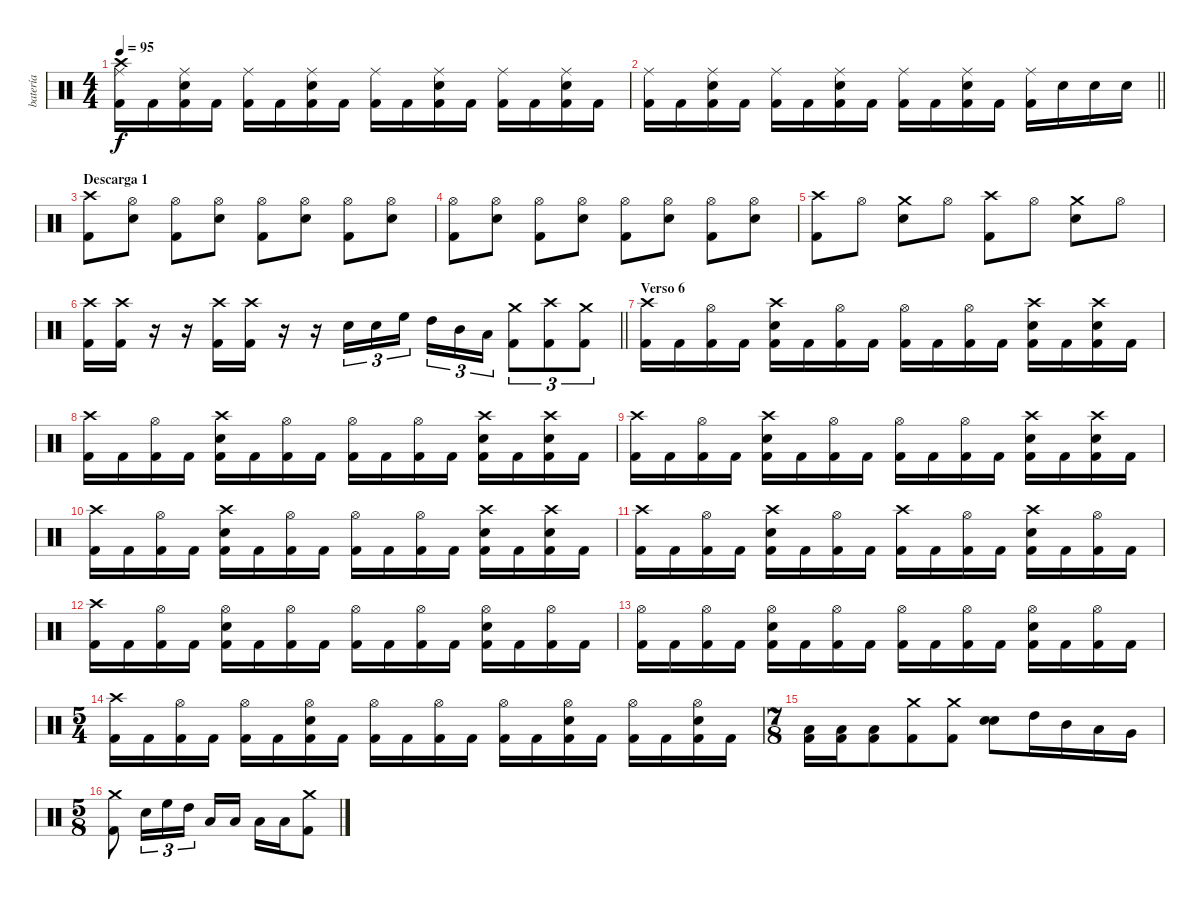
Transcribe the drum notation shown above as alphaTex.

\track ("batería" "batería") {instrument percussion}
\staff {score}
\articulation defaults
\ts (4 4)
\tempo 95
\clef neutral
\ks c
("Crash high (hit)" "Ride (middle)" "Kick (hit) 2").16{dy f} "Kick (hit) 2".16 ("Ride (middle)" "Electric Snare (hit)" "Kick (hit) 2").16 "Kick (hit) 2".16 ("Ride (middle)" "Kick (hit) 2").16 "Kick (hit) 2".16 ("Ride (middle)" "Electric Snare (hit)" "Kick (hit) 2").16 "Kick (hit) 2".16 ("Ride (middle)" "Kick (hit) 2").16 "Kick (hit) 2".16 ("Ride (middle)" "Electric Snare (hit)" "Kick (hit) 2").16 "Kick (hit) 2".16 ("Ride (middle)" "Kick (hit) 2").16 "Kick (hit) 2".16 ("Ride (middle)" "Electric Snare (hit)" "Kick (hit) 2").16 "Kick (hit) 2".16 |
\barLineRight lightlight
("Ride (middle)" "Kick (hit) 2").16 "Kick (hit) 2".16 ("Ride (middle)" "Electric Snare (hit)" "Kick (hit) 2").16 "Kick (hit) 2".16 ("Ride (middle)" "Kick (hit) 2").16 "Kick (hit) 2".16 ("Ride (middle)" "Electric Snare (hit)" "Kick (hit) 2").16 "Kick (hit) 2".16 ("Ride (middle)" "Kick (hit) 2").16 "Kick (hit) 2".16 ("Ride (middle)" "Electric Snare (hit)" "Kick (hit) 2").16 "Kick (hit) 2".16 ("Ride (middle)" "Kick (hit) 2").16 "Electric Snare (hit)".16 "Electric Snare (hit)".16 "Electric Snare (hit)".16 |
\section ("" "Descarga 1")
("Crash high (hit)" "Kick (hit) 2").8 ("Hi-Hat (open)" "Electric Snare (hit)").8 ("Hi-Hat (open)" "Kick (hit) 2").8 ("Hi-Hat (open)" "Electric Snare (hit)").8 ("Hi-Hat (open)" "Kick (hit) 2").8 ("Hi-Hat (open)" "Electric Snare (hit)").8 ("Hi-Hat (open)" "Kick (hit) 2").8 ("Hi-Hat (open)" "Electric Snare (hit)").8 |
("Hi-Hat (open)" "Kick (hit) 2").8 ("Hi-Hat (open)" "Electric Snare (hit)").8 ("Hi-Hat (open)" "Kick (hit) 2").8 ("Hi-Hat (open)" "Electric Snare (hit)").8 ("Hi-Hat (open)" "Kick (hit) 2").8 ("Hi-Hat (open)" "Electric Snare (hit)").8 ("Hi-Hat (open)" "Kick (hit) 2").8 ("Hi-Hat (open)" "Electric Snare (hit)").8 |
("Crash high (hit)" "Kick (hit) 2").8 "Hi-Hat (open)".8 ("Crash medium (hit)" "Electric Snare (hit)").8 "Hi-Hat (open)".8 ("Crash high (hit)" "Kick (hit) 2").8 "Hi-Hat (open)".8 ("Crash medium (hit)" "Electric Snare (hit)").8 "Hi-Hat (open)".8 |
\barLineRight lightlight
("Crash high (hit)" "Kick (hit) 2").16 ("Crash high (hit)" "Kick (hit) 2").16 r.16 r.16 ("Crash high (hit)" "Kick (hit) 2").16 ("Crash high (hit)" "Kick (hit) 2").16 r.16 r.16 "Electric Snare (hit)".16{tu (3 2)} "Electric Snare (hit)".16{tu (3 2)} "High Floor Tom (hit)".16{tu (3 2) beam splitsecondary} "High Tom (hit)".16{tu (3 2)} "Mid Tom (hit)".16{tu (3 2)} "Low Tom (hit)".16{tu (3 2)} ("Crash medium (hit)" "Kick (hit) 2").8{tu (3 2)} ("Crash high (hit)" "Kick (hit) 2").8{tu (3 2)} ("Crash medium (hit)" "Kick (hit) 2").8{tu (3 2)} |
\section ("" "Verso 6")
("Crash high (hit)" "Kick (hit) 2").16 "Kick (hit) 2".16 ("Hi-Hat (open)" "Kick (hit) 2").16 "Kick (hit) 2".16 ("Electric Snare (hit)" "Crash high (hit)" "Kick (hit) 2").16 "Kick (hit) 2".16 ("Hi-Hat (open)" "Kick (hit) 2").16 "Kick (hit) 2".16 ("Hi-Hat (open)" "Kick (hit) 2").16 "Kick (hit) 2".16 ("Hi-Hat (open)" "Kick (hit) 2").16 "Kick (hit) 2".16 ("Electric Snare (hit)" "Crash high (hit)" "Kick (hit) 2").16 "Kick (hit) 2".16 ("Electric Snare (hit)" "Crash high (hit)" "Kick (hit) 2").16 "Kick (hit) 2".16 |
("Crash high (hit)" "Kick (hit) 2").16 "Kick (hit) 2".16 ("Hi-Hat (open)" "Kick (hit) 2").16 "Kick (hit) 2".16 ("Electric Snare (hit)" "Crash high (hit)" "Kick (hit) 2").16 "Kick (hit) 2".16 ("Hi-Hat (open)" "Kick (hit) 2").16 "Kick (hit) 2".16 ("Hi-Hat (open)" "Kick (hit) 2").16 "Kick (hit) 2".16 ("Hi-Hat (open)" "Kick (hit) 2").16 "Kick (hit) 2".16 ("Electric Snare (hit)" "Crash high (hit)" "Kick (hit) 2").16 "Kick (hit) 2".16 ("Electric Snare (hit)" "Crash high (hit)" "Kick (hit) 2").16 "Kick (hit) 2".16 |
("Crash high (hit)" "Kick (hit) 2").16 "Kick (hit) 2".16 ("Hi-Hat (open)" "Kick (hit) 2").16 "Kick (hit) 2".16 ("Electric Snare (hit)" "Crash high (hit)" "Kick (hit) 2").16 "Kick (hit) 2".16 ("Hi-Hat (open)" "Kick (hit) 2").16 "Kick (hit) 2".16 ("Hi-Hat (open)" "Kick (hit) 2").16 "Kick (hit) 2".16 ("Hi-Hat (open)" "Kick (hit) 2").16 "Kick (hit) 2".16 ("Electric Snare (hit)" "Crash high (hit)" "Kick (hit) 2").16 "Kick (hit) 2".16 ("Electric Snare (hit)" "Crash high (hit)" "Kick (hit) 2").16 "Kick (hit) 2".16 |
("Crash high (hit)" "Kick (hit) 2").16 "Kick (hit) 2".16 ("Hi-Hat (open)" "Kick (hit) 2").16 "Kick (hit) 2".16 ("Electric Snare (hit)" "Crash high (hit)" "Kick (hit) 2").16 "Kick (hit) 2".16 ("Hi-Hat (open)" "Kick (hit) 2").16 "Kick (hit) 2".16 ("Hi-Hat (open)" "Kick (hit) 2").16 "Kick (hit) 2".16 ("Hi-Hat (open)" "Kick (hit) 2").16 "Kick (hit) 2".16 ("Electric Snare (hit)" "Crash high (hit)" "Kick (hit) 2").16 "Kick (hit) 2".16 ("Electric Snare (hit)" "Crash high (hit)" "Kick (hit) 2").16 "Kick (hit) 2".16 |
("Crash high (hit)" "Kick (hit) 2").16 "Kick (hit) 2".16 ("Hi-Hat (open)" "Kick (hit) 2").16 "Kick (hit) 2".16 ("Electric Snare (hit)" "Crash high (hit)" "Kick (hit) 2").16 "Kick (hit) 2".16 ("Hi-Hat (open)" "Kick (hit) 2").16 "Kick (hit) 2".16 ("Crash high (hit)" "Kick (hit) 2").16 "Kick (hit) 2".16 ("Hi-Hat (open)" "Kick (hit) 2").16 "Kick (hit) 2".16 ("Electric Snare (hit)" "Crash high (hit)" "Kick (hit) 2").16 "Kick (hit) 2".16 ("Hi-Hat (open)" "Kick (hit) 2").16 "Kick (hit) 2".16 |
("Crash high (hit)" "Kick (hit) 2").16 "Kick (hit) 2".16 ("Hi-Hat (open)" "Kick (hit) 2").16 "Kick (hit) 2".16 ("Electric Snare (hit)" "Hi-Hat (open)" "Kick (hit) 2").16 "Kick (hit) 2".16 ("Hi-Hat (open)" "Kick (hit) 2").16 "Kick (hit) 2".16 ("Hi-Hat (open)" "Kick (hit) 2").16 "Kick (hit) 2".16 ("Hi-Hat (open)" "Kick (hit) 2").16 "Kick (hit) 2".16 ("Electric Snare (hit)" "Hi-Hat (open)" "Kick (hit) 2").16 "Kick (hit) 2".16 ("Hi-Hat (open)" "Kick (hit) 2").16 "Kick (hit) 2".16 |
("Hi-Hat (open)" "Kick (hit) 2").16 "Kick (hit) 2".16 ("Hi-Hat (open)" "Kick (hit) 2").16 "Kick (hit) 2".16 ("Electric Snare (hit)" "Hi-Hat (open)" "Kick (hit) 2").16 "Kick (hit) 2".16 ("Hi-Hat (open)" "Kick (hit) 2").16 "Kick (hit) 2".16 ("Hi-Hat (open)" "Kick (hit) 2").16 "Kick (hit) 2".16 ("Hi-Hat (open)" "Kick (hit) 2").16 "Kick (hit) 2".16 ("Electric Snare (hit)" "Hi-Hat (open)" "Kick (hit) 2").16 "Kick (hit) 2".16 ("Hi-Hat (open)" "Kick (hit) 2").16 "Kick (hit) 2".16 |
\ts (5 4)
("Crash high (hit)" "Kick (hit) 2").16 "Kick (hit) 2".16 ("Hi-Hat (open)" "Kick (hit) 2").16 "Kick (hit) 2".16 ("Hi-Hat (open)" "Kick (hit) 2").16 "Kick (hit) 2".16 ("Electric Snare (hit)" "Hi-Hat (open)" "Kick (hit) 2").16 "Kick (hit) 2".16 ("Hi-Hat (open)" "Kick (hit) 2").16 "Kick (hit) 2".16 ("Hi-Hat (open)" "Kick (hit) 2").16 "Kick (hit) 2".16 ("Hi-Hat (open)" "Kick (hit) 2").16 "Kick (hit) 2".16 ("Electric Snare (hit)" "Hi-Hat (open)" "Kick (hit) 2").16 "Kick (hit) 2".16 ("Hi-Hat (open)" "Kick (hit) 2").16 "Kick (hit) 2".16 ("Electric Snare (hit)" "Hi-Hat (open)" "Kick (hit) 2").16 "Kick (hit) 2".16 |
\ts (7 8)
("Low Tom (hit)" "Kick (hit) 2").16 ("Low Tom (hit)" "Kick (hit) 2").16 ("Low Tom (hit)" "Kick (hit) 2").8 ("Crash medium (hit)" "Kick (hit) 2").8 ("Crash medium (hit)" "Kick (hit) 2").8 ("Electric Snare (hit)" "Electric Snare (hit)").8 "High Tom (hit)".16 "Mid Tom (hit)".16 "Low Tom (hit)".16 "Very Low Tom (hit)".16 |
\ts (5 8)
("Crash medium (hit)" "Kick (hit) 2").8 "Electric Snare (hit)".16{tu (3 2)} "High Floor Tom (hit)".16{tu (3 2)} "High Tom (hit)".16{tu (3 2)} "Low Tom (hit)".16 "Low Tom (hit)".16 "Low Tom (hit)".16 "Low Tom (hit)".16 ("Crash medium (hit)" "Kick (hit) 2").8
